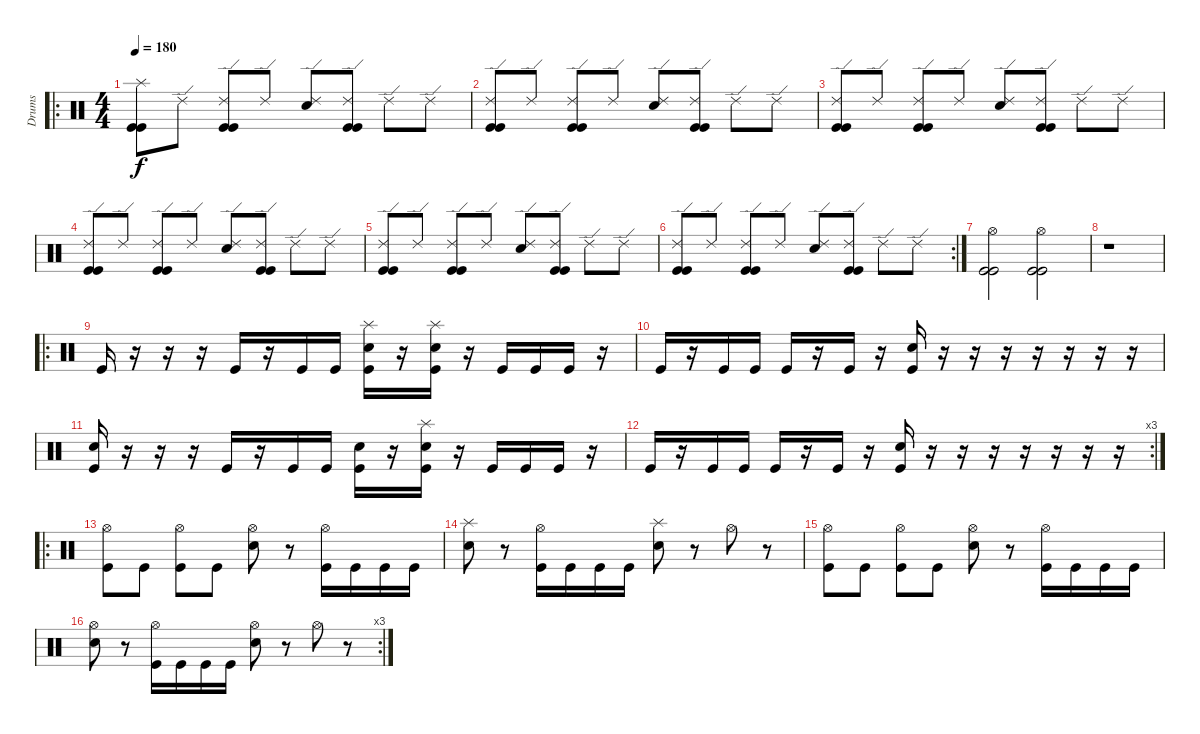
\track ("Drums" "Drums") {instrument percussion}
\staff {score}
\articulation defaults
\ro
\ts (4 4)
\tempo 180
\clef neutral
\ks c
("Splash (hit)" "Kick (hit)" "Kick (hit)").8{dy f} "Ride (edge) 2".8 ("Ride (edge) 2" "Kick (hit)" "Kick (hit)").8 "Ride (edge) 2".8 ("Ride (edge) 2" "Snare (hit) 2").8 ("Ride (edge) 2" "Kick (hit)" "Kick (hit)").8 "Ride (edge) 2".8 "Ride (edge) 2".8 |
("Ride (edge) 2" "Kick (hit)" "Kick (hit)").8 "Ride (edge) 2".8 ("Ride (edge) 2" "Kick (hit)" "Kick (hit)").8 "Ride (edge) 2".8 ("Ride (edge) 2" "Snare (hit) 2").8 ("Ride (edge) 2" "Kick (hit)" "Kick (hit)").8 "Ride (edge) 2".8 "Ride (edge) 2".8 |
("Ride (edge) 2" "Kick (hit)" "Kick (hit)").8 "Ride (edge) 2".8 ("Ride (edge) 2" "Kick (hit)" "Kick (hit)").8 "Ride (edge) 2".8 ("Ride (edge) 2" "Snare (hit) 2").8 ("Ride (edge) 2" "Kick (hit)" "Kick (hit)").8 "Ride (edge) 2".8 "Ride (edge) 2".8 |
("Ride (edge) 2" "Kick (hit)" "Kick (hit)").8 "Ride (edge) 2".8 ("Ride (edge) 2" "Kick (hit)" "Kick (hit)").8 "Ride (edge) 2".8 ("Ride (edge) 2" "Snare (hit) 2").8 ("Ride (edge) 2" "Kick (hit)" "Kick (hit)").8 "Ride (edge) 2".8 "Ride (edge) 2".8 |
("Ride (edge) 2" "Kick (hit)" "Kick (hit)").8 "Ride (edge) 2".8 ("Ride (edge) 2" "Kick (hit)" "Kick (hit)").8 "Ride (edge) 2".8 ("Ride (edge) 2" "Snare (hit) 2").8 ("Ride (edge) 2" "Kick (hit)" "Kick (hit)").8 "Ride (edge) 2".8 "Ride (edge) 2".8 |
\rc 2
("Ride (edge) 2" "Kick (hit)" "Kick (hit)").8 "Ride (edge) 2".8 ("Ride (edge) 2" "Kick (hit)" "Kick (hit)").8 "Ride (edge) 2".8 ("Ride (edge) 2" "Snare (hit) 2").8 ("Ride (edge) 2" "Kick (hit)" "Kick (hit)").8 "Ride (edge) 2".8 "Ride (edge) 2".8 |
("Hi-Hat (open)" "Kick (hit)" "Kick (hit)").2 ("Hi-Hat (open)" "Kick (hit)" "Kick (hit)").2 |
r.1 |
\ro "Kick (hit)".16
r.16 r.16 r.16 "Kick (hit)".16 r.16 "Kick (hit)".16 "Kick (hit)".16 ("Splash (hit)" "Snare (hit) 2" "Kick (hit)").16 r.16 ("Splash (hit)" "Snare (hit) 2" "Kick (hit)").16 r.16 "Kick (hit)".16 "Kick (hit)".16 "Kick (hit)".16 r.16 |
"Kick (hit)".16 r.16 "Kick (hit)".16 "Kick (hit)".16 "Kick (hit)".16 r.16 "Kick (hit)".16 r.16 ("Snare (hit) 2" "Kick (hit)").16 r.16 r.16 r.16 r.16 r.16 r.16 r.16 |
("Snare (hit) 2" "Kick (hit)").16 r.16 r.16 r.16 "Kick (hit)".16 r.16 "Kick (hit)".16 "Kick (hit)".16 ("Snare (hit) 2" "Kick (hit)").16 r.16 ("Splash (hit)" "Snare (hit) 2" "Kick (hit)").16 r.16 "Kick (hit)".16 "Kick (hit)".16 "Kick (hit)".16 r.16 |
\rc 3 "Kick (hit)".16
r.16 "Kick (hit)".16 "Kick (hit)".16 "Kick (hit)".16 r.16 "Kick (hit)".16 r.16 ("Snare (hit) 2" "Kick (hit)").16 r.16 r.16 r.16 r.16 r.16 r.16 r.16 |
\ro
("Hi-Hat (open)" "Kick (hit)").8 "Kick (hit)".8 ("Hi-Hat (open)" "Kick (hit)").8 "Kick (hit)".8 ("Hi-Hat (open)" "Snare (hit) 2").8 r.8 ("Hi-Hat (open)" "Kick (hit)").16 "Kick (hit)".16 "Kick (hit)".16 "Kick (hit)".16 |
("Splash (hit)" "Snare (hit) 2").8 r.8 ("Hi-Hat (open)" "Kick (hit)").16 "Kick (hit)".16 "Kick (hit)".16 "Kick (hit)".16 ("Splash (hit)" "Snare (hit) 2").8 r.8 "Hi-Hat (open)".8 r.8 |
("Hi-Hat (open)" "Kick (hit)").8 "Kick (hit)".8 ("Hi-Hat (open)" "Kick (hit)").8 "Kick (hit)".8 ("Hi-Hat (open)" "Snare (hit) 2").8 r.8 ("Hi-Hat (open)" "Kick (hit)").16 "Kick (hit)".16 "Kick (hit)".16 "Kick (hit)".16 |
\rc 3
("Hi-Hat (open)" "Snare (hit) 2").8 r.8 ("Hi-Hat (open)" "Kick (hit)").16 "Kick (hit)".16 "Kick (hit)".16 "Kick (hit)".16 ("Hi-Hat (open)" "Snare (hit) 2").8 r.8 "Hi-Hat (open)".8 r.8
